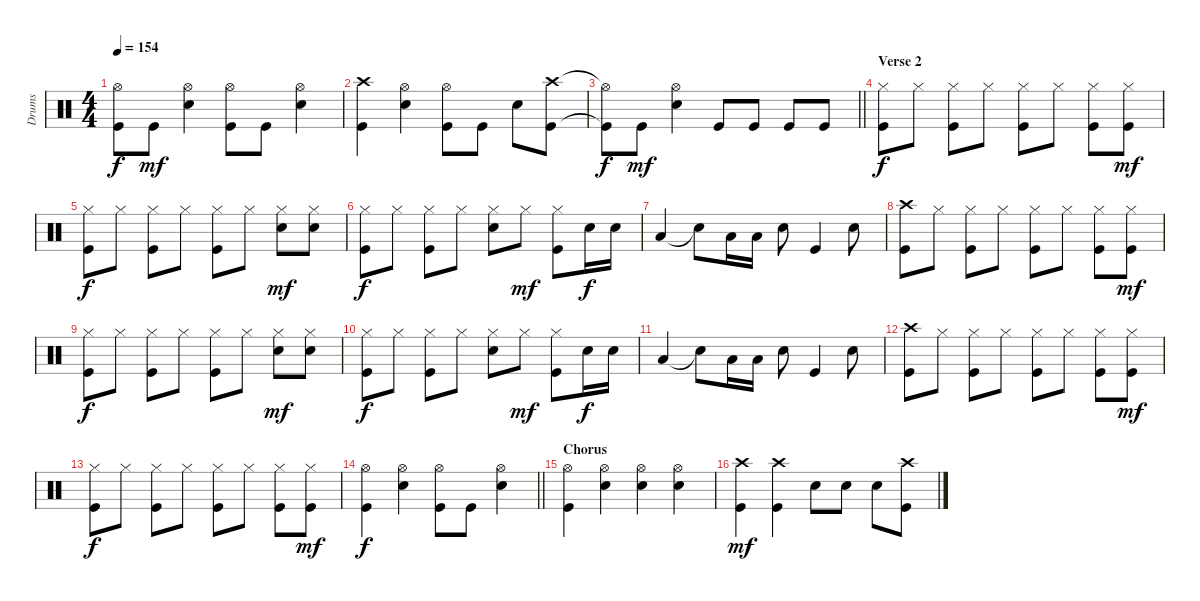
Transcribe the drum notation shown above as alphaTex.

\track ("Drums" "Drums") {instrument percussion}
\staff {score}
\articulation defaults
\ts (4 4)
\tempo 154
\clef neutral
\ks c
("Hi-Hat (open)"{t} "Kick (hit)"{t}).8{dy f} "Kick (hit)".8{dy mf} ("Hi-Hat (open)" "Electric Snare (hit)").4 ("Hi-Hat (open)" "Kick (hit)").8 "Kick (hit)".8 ("Hi-Hat (open)" "Electric Snare (hit)").4 |
("Crash high (hit)" "Kick (hit)").4 ("Hi-Hat (open)" "Electric Snare (hit)").4 ("Hi-Hat (open)" "Kick (hit)").8 "Kick (hit)".8 "Electric Snare (hit)".8 ("Crash high (hit)" "Kick (hit)").8 |
\barLineRight lightlight
("Hi-Hat (open)"{t} "Kick (hit)"{t}).8{dy f} "Kick (hit)".8{dy mf} ("Hi-Hat (open)" "Electric Snare (hit)").4 "Kick (hit)".8 "Kick (hit)".8 "Kick (hit)".8 "Kick (hit)".8 |
\section ("" "Verse 2")
("Hi-Hat (closed)" "Kick (hit)").8{dy f} "Hi-Hat (closed)".8 ("Hi-Hat (closed)" "Kick (hit)").8 "Hi-Hat (closed)".8 ("Hi-Hat (closed)" "Kick (hit)").8 "Hi-Hat (closed)".8 ("Hi-Hat (closed)" "Kick (hit)").8 ("Hi-Hat (closed)" "Kick (hit)").8{dy mf} |
("Hi-Hat (closed)" "Kick (hit)").8{dy f} "Hi-Hat (closed)".8 ("Hi-Hat (closed)" "Kick (hit)").8 "Hi-Hat (closed)".8 ("Hi-Hat (closed)" "Kick (hit)").8 "Hi-Hat (closed)".8 ("Hi-Hat (closed)" "Electric Snare (hit)").8{dy mf} ("Hi-Hat (closed)" "Electric Snare (hit)").8 |
("Hi-Hat (closed)" "Kick (hit)").8{dy f} "Hi-Hat (closed)".8 ("Hi-Hat (closed)" "Kick (hit)").8 "Hi-Hat (closed)".8 ("Hi-Hat (closed)" "Electric Snare (hit)").8 "Hi-Hat (closed)".8{dy mf} ("Hi-Hat (closed)" "Kick (hit)").8 "Electric Snare (hit)".16{dy f} "Electric Snare (hit)".16 |
"Low Tom (hit)".4 "Snare (hit)"{t}.8 "Low Tom (hit)".16 "Low Tom (hit)".16 "Electric Snare (hit)".8 "Kick (hit)".4 "Electric Snare (hit)".8 |
("Crash high (hit)" "Kick (hit)").8 "Hi-Hat (closed)".8 ("Hi-Hat (closed)" "Kick (hit)").8 "Hi-Hat (closed)".8 ("Hi-Hat (closed)" "Kick (hit)").8 "Hi-Hat (closed)".8 ("Hi-Hat (closed)" "Kick (hit)").8 ("Hi-Hat (closed)" "Kick (hit)").8{dy mf} |
("Hi-Hat (closed)" "Kick (hit)").8{dy f} "Hi-Hat (closed)".8 ("Hi-Hat (closed)" "Kick (hit)").8 "Hi-Hat (closed)".8 ("Hi-Hat (closed)" "Kick (hit)").8 "Hi-Hat (closed)".8 ("Hi-Hat (closed)" "Electric Snare (hit)").8{dy mf} ("Hi-Hat (closed)" "Electric Snare (hit)").8 |
("Hi-Hat (closed)" "Kick (hit)").8{dy f} "Hi-Hat (closed)".8 ("Hi-Hat (closed)" "Kick (hit)").8 "Hi-Hat (closed)".8 ("Hi-Hat (closed)" "Electric Snare (hit)").8 "Hi-Hat (closed)".8{dy mf} ("Hi-Hat (closed)" "Kick (hit)").8 "Electric Snare (hit)".16{dy f} "Electric Snare (hit)".16 |
"Low Tom (hit)".4 "Snare (hit)"{t}.8 "Low Tom (hit)".16 "Low Tom (hit)".16 "Electric Snare (hit)".8 "Kick (hit)".4 "Electric Snare (hit)".8 |
("Crash high (hit)" "Kick (hit)").8 "Hi-Hat (closed)".8 ("Hi-Hat (closed)" "Kick (hit)").8 "Hi-Hat (closed)".8 ("Hi-Hat (closed)" "Kick (hit)").8 "Hi-Hat (closed)".8 ("Hi-Hat (closed)" "Kick (hit)").8 ("Hi-Hat (closed)" "Kick (hit)").8{dy mf} |
("Hi-Hat (closed)" "Kick (hit)").8{dy f} "Hi-Hat (closed)".8 ("Hi-Hat (closed)" "Kick (hit)").8 "Hi-Hat (closed)".8 ("Hi-Hat (closed)" "Kick (hit)").8 "Hi-Hat (closed)".8 ("Hi-Hat (closed)" "Kick (hit)").8 ("Hi-Hat (closed)" "Kick (hit)").8{dy mf} |
\barLineRight lightlight
("Hi-Hat (open)" "Kick (hit)").4{dy f} ("Hi-Hat (open)" "Electric Snare (hit)").4 ("Hi-Hat (open)" "Kick (hit)").8 "Kick (hit)".8 ("Hi-Hat (open)" "Electric Snare (hit)").4 |
\section ("" "Chorus")
("Hi-Hat (open)" "Kick (hit)").4 ("Hi-Hat (open)" "Electric Snare (hit)").4 ("Hi-Hat (open)" "Electric Snare (hit)").4 ("Hi-Hat (open)" "Electric Snare (hit)").4 |
("Crash high (hit)" "Kick (hit)").4{dy mf} ("Crash high (hit)" "Kick (hit)").4 "Electric Snare (hit)".8 "Electric Snare (hit)".8 "Electric Snare (hit)".8 ("Crash high (hit)" "Kick (hit)").8
